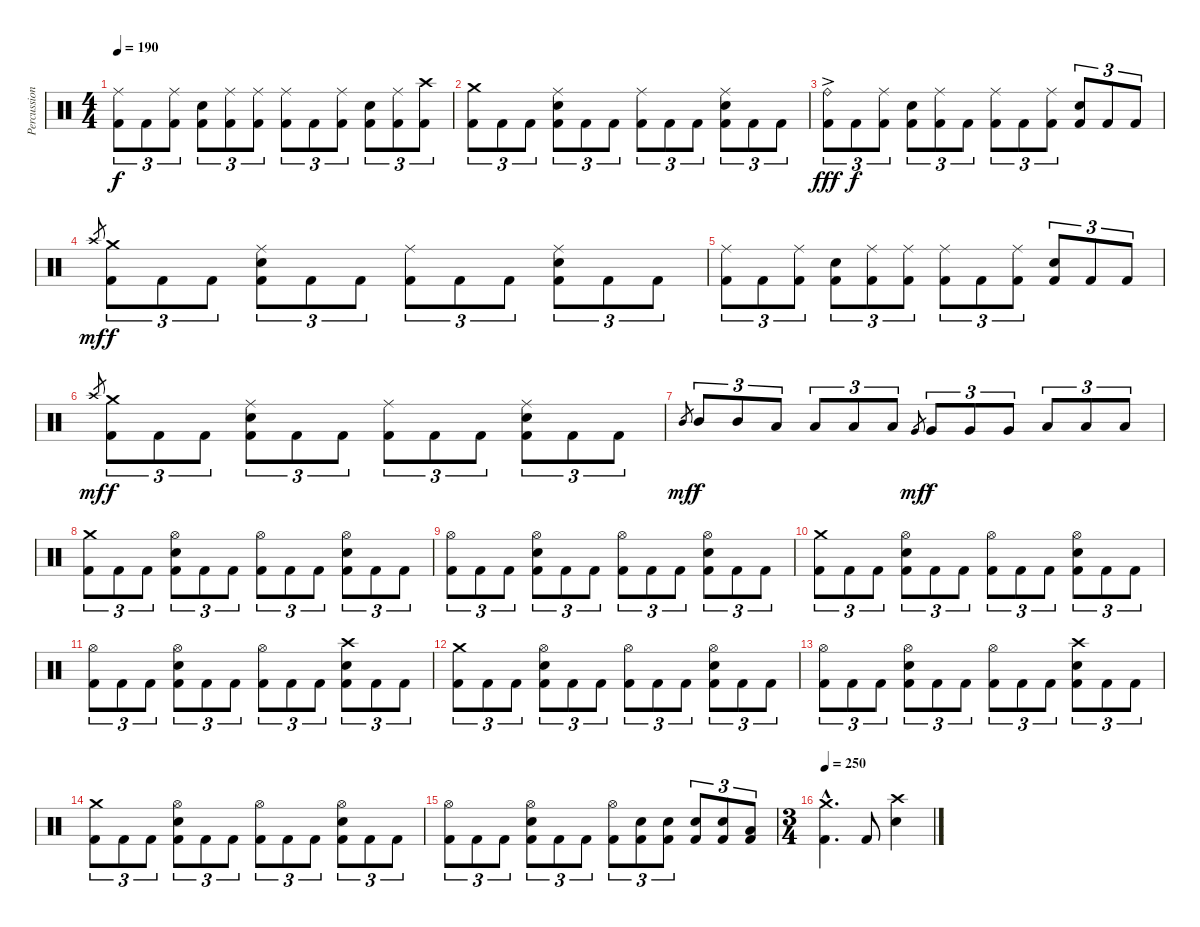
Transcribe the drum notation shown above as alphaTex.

\track ("Percussion" "Percussion") {instrument percussion}
\staff {score}
\articulation defaults
\ts (4 4)
\tempo 190
\clef neutral
\ks c
("Ride (middle)" "Kick (hit) 2").8{tu (3 2) dy f} "Kick (hit) 2".8{tu (3 2)} ("Ride (middle)" "Kick (hit) 2").8{tu (3 2)} ("Electric Snare (hit)" "Kick (hit) 2").8{tu (3 2)} ("Ride (middle)" "Kick (hit) 2").8{tu (3 2)} ("Ride (middle)" "Kick (hit) 2").8{tu (3 2)} ("Ride (middle)" "Kick (hit) 2").8{tu (3 2)} "Kick (hit) 2".8{tu (3 2)} ("Ride (middle)" "Kick (hit) 2").8{tu (3 2)} ("Electric Snare (hit)" "Kick (hit) 2").8{tu (3 2)} ("Ride (middle)" "Kick (hit) 2").8{tu (3 2)} ("Crash high (hit)" "Kick (hit) 2").8{tu (3 2)} |
("Crash medium (hit)" "Kick (hit) 2").8{tu (3 2)} "Kick (hit) 2".8{tu (3 2)} "Kick (hit) 2".8{tu (3 2)} ("Ride (middle)" "Electric Snare (hit)" "Kick (hit) 2").8{tu (3 2)} "Kick (hit) 2".8{tu (3 2)} "Kick (hit) 2".8{tu (3 2)} ("Ride (middle)" "Kick (hit) 2").8{tu (3 2)} "Kick (hit) 2".8{tu (3 2)} "Kick (hit) 2".8{tu (3 2)} ("Ride (middle)" "Electric Snare (hit)" "Kick (hit) 2").8{tu (3 2)} "Kick (hit) 2".8{tu (3 2)} "Kick (hit) 2".8{tu (3 2)} |
("Ride (bell)"{ac} "Kick (hit) 2").8{tu (3 2) dy fff} "Kick (hit) 2".8{tu (3 2) dy f} ("Ride (middle)" "Kick (hit) 2").8{tu (3 2)} ("Electric Snare (hit)" "Kick (hit) 2").8{tu (3 2)} ("Ride (middle)" "Kick (hit) 2").8{tu (3 2)} "Kick (hit) 2".8{tu (3 2)} ("Ride (middle)" "Kick (hit) 2").8{tu (3 2)} "Kick (hit) 2".8{tu (3 2)} ("Ride (middle)" "Kick (hit) 2").8{tu (3 2)} ("Electric Snare (hit)" "Kick (hit) 2").8{tu (3 2)} "Kick (hit) 2".8{tu (3 2)} "Kick (hit) 2".8{tu (3 2)} |
"Crash high (hit)".8{gr dy mf} ("Crash medium (hit)" "Kick (hit) 2").8{tu (3 2) dy f} "Kick (hit) 2".8{tu (3 2)} "Kick (hit) 2".8{tu (3 2)} ("Ride (middle)" "Electric Snare (hit)" "Kick (hit) 2").8{tu (3 2)} "Kick (hit) 2".8{tu (3 2)} "Kick (hit) 2".8{tu (3 2)} ("Ride (middle)" "Kick (hit) 2").8{tu (3 2)} "Kick (hit) 2".8{tu (3 2)} "Kick (hit) 2".8{tu (3 2)} ("Ride (middle)" "Electric Snare (hit)" "Kick (hit) 2").8{tu (3 2)} "Kick (hit) 2".8{tu (3 2)} "Kick (hit) 2".8{tu (3 2)} |
("Ride (middle)" "Kick (hit) 2").8{tu (3 2)} "Kick (hit) 2".8{tu (3 2)} ("Ride (middle)" "Kick (hit) 2").8{tu (3 2)} ("Electric Snare (hit)" "Kick (hit) 2").8{tu (3 2)} ("Ride (middle)" "Kick (hit) 2").8{tu (3 2)} ("Ride (middle)" "Kick (hit) 2").8{tu (3 2)} ("Ride (middle)" "Kick (hit) 2").8{tu (3 2)} "Kick (hit) 2".8{tu (3 2)} ("Ride (middle)" "Kick (hit) 2").8{tu (3 2)} ("Electric Snare (hit)" "Kick (hit) 2").8{tu (3 2)} "Kick (hit) 2".8{tu (3 2)} "Kick (hit) 2".8{tu (3 2)} |
"Crash high (hit)".8{gr dy mf} ("Crash medium (hit)" "Kick (hit) 2").8{tu (3 2) dy f} "Kick (hit) 2".8{tu (3 2)} "Kick (hit) 2".8{tu (3 2)} ("Ride (middle)" "Electric Snare (hit)" "Kick (hit) 2").8{tu (3 2)} "Kick (hit) 2".8{tu (3 2)} "Kick (hit) 2".8{tu (3 2)} ("Ride (middle)" "Kick (hit) 2").8{tu (3 2)} "Kick (hit) 2".8{tu (3 2)} "Kick (hit) 2".8{tu (3 2)} ("Ride (middle)" "Electric Snare (hit)" "Kick (hit) 2").8{tu (3 2)} "Kick (hit) 2".8{tu (3 2)} "Kick (hit) 2".8{tu (3 2)} |
"Mid Tom (hit)".8{gr dy mf} "Mid Tom (hit)".8{tu (3 2) dy f} "Mid Tom (hit)".8{tu (3 2)} "Low Tom (hit)".8{tu (3 2)} "Low Tom (hit)".8{tu (3 2)} "Low Tom (hit)".8{tu (3 2)} "Low Tom (hit)".8{tu (3 2)} "Very Low Tom (hit)".8{gr dy mf} "Very Low Tom (hit)".8{tu (3 2) dy f} "Very Low Tom (hit)".8{tu (3 2)} "Very Low Tom (hit)".8{tu (3 2)} "Low Floor Tom (hit)".8{tu (3 2)} "Low Floor Tom (hit)".8{tu (3 2)} "Low Floor Tom (hit)".8{tu (3 2)} |
("Crash medium (hit)" "Kick (hit) 2").8{tu (3 2)} "Kick (hit) 2".8{tu (3 2)} "Kick (hit) 2".8{tu (3 2)} ("Hi-Hat (open)" "Electric Snare (hit)" "Kick (hit) 2").8{tu (3 2)} "Kick (hit) 2".8{tu (3 2)} "Kick (hit) 2".8{tu (3 2)} ("Hi-Hat (open)" "Kick (hit) 2").8{tu (3 2)} "Kick (hit) 2".8{tu (3 2)} "Kick (hit) 2".8{tu (3 2)} ("Hi-Hat (open)" "Electric Snare (hit)" "Kick (hit) 2").8{tu (3 2)} "Kick (hit) 2".8{tu (3 2)} "Kick (hit) 2".8{tu (3 2)} |
("Hi-Hat (open)" "Kick (hit) 2").8{tu (3 2)} "Kick (hit) 2".8{tu (3 2)} "Kick (hit) 2".8{tu (3 2)} ("Hi-Hat (open)" "Electric Snare (hit)" "Kick (hit) 2").8{tu (3 2)} "Kick (hit) 2".8{tu (3 2)} "Kick (hit) 2".8{tu (3 2)} ("Hi-Hat (open)" "Kick (hit) 2").8{tu (3 2)} "Kick (hit) 2".8{tu (3 2)} "Kick (hit) 2".8{tu (3 2)} ("Hi-Hat (open)" "Electric Snare (hit)" "Kick (hit) 2").8{tu (3 2)} "Kick (hit) 2".8{tu (3 2)} "Kick (hit) 2".8{tu (3 2)} |
("Crash medium (hit)" "Kick (hit) 2").8{tu (3 2)} "Kick (hit) 2".8{tu (3 2)} "Kick (hit) 2".8{tu (3 2)} ("Hi-Hat (open)" "Electric Snare (hit)" "Kick (hit) 2").8{tu (3 2)} "Kick (hit) 2".8{tu (3 2)} "Kick (hit) 2".8{tu (3 2)} ("Hi-Hat (open)" "Kick (hit) 2").8{tu (3 2)} "Kick (hit) 2".8{tu (3 2)} "Kick (hit) 2".8{tu (3 2)} ("Hi-Hat (open)" "Electric Snare (hit)" "Kick (hit) 2").8{tu (3 2)} "Kick (hit) 2".8{tu (3 2)} "Kick (hit) 2".8{tu (3 2)} |
("Hi-Hat (open)" "Kick (hit) 2").8{tu (3 2)} "Kick (hit) 2".8{tu (3 2)} "Kick (hit) 2".8{tu (3 2)} ("Hi-Hat (open)" "Electric Snare (hit)" "Kick (hit) 2").8{tu (3 2)} "Kick (hit) 2".8{tu (3 2)} "Kick (hit) 2".8{tu (3 2)} ("Hi-Hat (open)" "Kick (hit) 2").8{tu (3 2)} "Kick (hit) 2".8{tu (3 2)} "Kick (hit) 2".8{tu (3 2)} ("Crash high (hit)" "Electric Snare (hit)" "Kick (hit) 2").8{tu (3 2)} "Kick (hit) 2".8{tu (3 2)} "Kick (hit) 2".8{tu (3 2)} |
("Crash medium (hit)" "Kick (hit) 2").8{tu (3 2)} "Kick (hit) 2".8{tu (3 2)} "Kick (hit) 2".8{tu (3 2)} ("Hi-Hat (open)" "Electric Snare (hit)" "Kick (hit) 2").8{tu (3 2)} "Kick (hit) 2".8{tu (3 2)} "Kick (hit) 2".8{tu (3 2)} ("Hi-Hat (open)" "Kick (hit) 2").8{tu (3 2)} "Kick (hit) 2".8{tu (3 2)} "Kick (hit) 2".8{tu (3 2)} ("Hi-Hat (open)" "Electric Snare (hit)" "Kick (hit) 2").8{tu (3 2)} "Kick (hit) 2".8{tu (3 2)} "Kick (hit) 2".8{tu (3 2)} |
("Hi-Hat (open)" "Kick (hit) 2").8{tu (3 2)} "Kick (hit) 2".8{tu (3 2)} "Kick (hit) 2".8{tu (3 2)} ("Hi-Hat (open)" "Electric Snare (hit)" "Kick (hit) 2").8{tu (3 2)} "Kick (hit) 2".8{tu (3 2)} "Kick (hit) 2".8{tu (3 2)} ("Hi-Hat (open)" "Kick (hit) 2").8{tu (3 2)} "Kick (hit) 2".8{tu (3 2)} "Kick (hit) 2".8{tu (3 2)} ("Crash high (hit)" "Electric Snare (hit)" "Kick (hit) 2").8{tu (3 2)} "Kick (hit) 2".8{tu (3 2)} "Kick (hit) 2".8{tu (3 2)} |
("Crash medium (hit)" "Kick (hit) 2").8{tu (3 2)} "Kick (hit) 2".8{tu (3 2)} "Kick (hit) 2".8{tu (3 2)} ("Hi-Hat (open)" "Electric Snare (hit)" "Kick (hit) 2").8{tu (3 2)} "Kick (hit) 2".8{tu (3 2)} "Kick (hit) 2".8{tu (3 2)} ("Hi-Hat (open)" "Kick (hit) 2").8{tu (3 2)} "Kick (hit) 2".8{tu (3 2)} "Kick (hit) 2".8{tu (3 2)} ("Hi-Hat (open)" "Electric Snare (hit)" "Kick (hit) 2").8{tu (3 2)} "Kick (hit) 2".8{tu (3 2)} "Kick (hit) 2".8{tu (3 2)} |
("Hi-Hat (open)" "Kick (hit) 2").8{tu (3 2)} "Kick (hit) 2".8{tu (3 2)} "Kick (hit) 2".8{tu (3 2)} ("Hi-Hat (open)" "Electric Snare (hit)" "Kick (hit) 2").8{tu (3 2)} "Kick (hit) 2".8{tu (3 2)} "Kick (hit) 2".8{tu (3 2)} ("Hi-Hat (open)" "Kick (hit) 2").8{tu (3 2)} ("Electric Snare (hit)" "Kick (hit) 2").8{tu (3 2)} ("Electric Snare (hit)" "Kick (hit) 2").8{tu (3 2)} ("Electric Snare (hit)" "Kick (hit) 2").8{tu (3 2)} ("Electric Snare (hit)" "Kick (hit) 2").8{tu (3 2)} ("Low Tom (hit)" "Kick (hit) 2").8{tu (3 2)} |
\ts (3 4)
\tempo 250
("Crash medium (hit)"{hac} "Kick (hit) 2"{hac}).4{d} "Kick (hit) 2".8 ("Crash high (hit)" "Electric Snare (hit)").4
